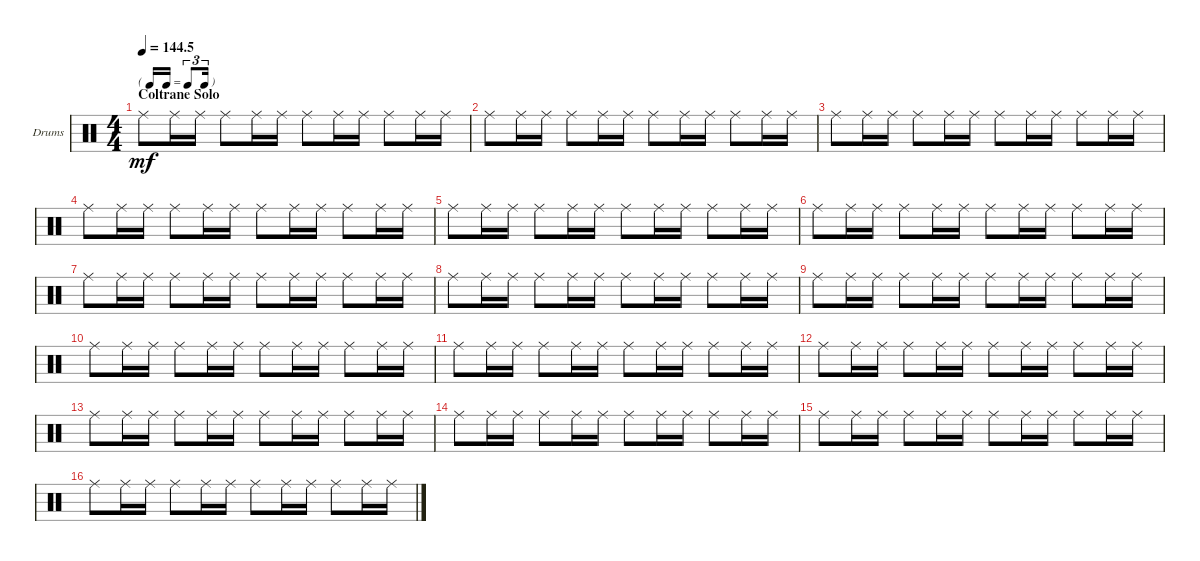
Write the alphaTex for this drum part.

\defaultSystemsLayout 4
\bracketExtendMode groupsimilarinstruments
\firstSystemTrackNameOrientation horizontal
\otherSystemsTrackNameOrientation horizontal
\track ("Drumkit" "Drums") {instrument percussion}
\staff {score}
\articulation defaults
\ts (4 4)
\tf triplet16th
\section ("" "Coltrane Solo")
\tempo
144.5
\accidentals auto
\clef neutral
\ottava regular
\simile none
\scale
0.5
\ks c "Ride (middle)".8{dy mf} "Ride (middle)".16 "Ride (middle)".16 "Ride (middle)".8 "Ride (middle)".16 "Ride (middle)".16 "Ride (middle)".8 "Ride (middle)".16 "Ride (middle)".16 "Ride (middle)".8 "Ride (middle)".16 "Ride (middle)".16
|
\scale
0.5 "Ride (middle)".8 "Ride (middle)".16 "Ride (middle)".16 "Ride (middle)".8 "Ride (middle)".16 "Ride (middle)".16 "Ride (middle)".8 "Ride (middle)".16 "Ride (middle)".16 "Ride (middle)".8 "Ride (middle)".16 "Ride (middle)".16 |
\scale
0.5 "Ride (middle)".8 "Ride (middle)".16 "Ride (middle)".16 "Ride (middle)".8 "Ride (middle)".16 "Ride (middle)".16 "Ride (middle)".8 "Ride (middle)".16 "Ride (middle)".16 "Ride (middle)".8 "Ride (middle)".16 "Ride (middle)".16 |
\scale
0.5 "Ride (middle)".8 "Ride (middle)".16 "Ride (middle)".16 "Ride (middle)".8 "Ride (middle)".16 "Ride (middle)".16 "Ride (middle)".8 "Ride (middle)".16 "Ride (middle)".16 "Ride (middle)".8 "Ride (middle)".16 "Ride (middle)".16 |
\scale
0.5 "Ride (middle)".8 "Ride (middle)".16 "Ride (middle)".16 "Ride (middle)".8 "Ride (middle)".16 "Ride (middle)".16 "Ride (middle)".8 "Ride (middle)".16 "Ride (middle)".16 "Ride (middle)".8 "Ride (middle)".16 "Ride (middle)".16 |
\scale
0.5 "Ride (middle)".8 "Ride (middle)".16 "Ride (middle)".16 "Ride (middle)".8 "Ride (middle)".16 "Ride (middle)".16 "Ride (middle)".8 "Ride (middle)".16 "Ride (middle)".16 "Ride (middle)".8 "Ride (middle)".16 "Ride (middle)".16 |
\scale
0.5 "Ride (middle)".8 "Ride (middle)".16 "Ride (middle)".16 "Ride (middle)".8 "Ride (middle)".16 "Ride (middle)".16 "Ride (middle)".8 "Ride (middle)".16 "Ride (middle)".16 "Ride (middle)".8 "Ride (middle)".16 "Ride (middle)".16 |
\scale
0.5 "Ride (middle)".8 "Ride (middle)".16 "Ride (middle)".16 "Ride (middle)".8 "Ride (middle)".16 "Ride (middle)".16 "Ride (middle)".8 "Ride (middle)".16 "Ride (middle)".16 "Ride (middle)".8 "Ride (middle)".16 "Ride (middle)".16 |
\scale
0.5 "Ride (middle)".8 "Ride (middle)".16 "Ride (middle)".16 "Ride (middle)".8 "Ride (middle)".16 "Ride (middle)".16 "Ride (middle)".8 "Ride (middle)".16 "Ride (middle)".16 "Ride (middle)".8 "Ride (middle)".16 "Ride (middle)".16 |
\scale
0.5 "Ride (middle)".8 "Ride (middle)".16 "Ride (middle)".16 "Ride (middle)".8 "Ride (middle)".16 "Ride (middle)".16 "Ride (middle)".8 "Ride (middle)".16 "Ride (middle)".16 "Ride (middle)".8 "Ride (middle)".16 "Ride (middle)".16 |
\scale
0.5 "Ride (middle)".8 "Ride (middle)".16 "Ride (middle)".16 "Ride (middle)".8 "Ride (middle)".16 "Ride (middle)".16 "Ride (middle)".8 "Ride (middle)".16 "Ride (middle)".16 "Ride (middle)".8 "Ride (middle)".16 "Ride (middle)".16 |
\scale
0.5 "Ride (middle)".8 "Ride (middle)".16 "Ride (middle)".16 "Ride (middle)".8 "Ride (middle)".16 "Ride (middle)".16 "Ride (middle)".8 "Ride (middle)".16 "Ride (middle)".16 "Ride (middle)".8 "Ride (middle)".16 "Ride (middle)".16 |
\scale
0.5 "Ride (middle)".8 "Ride (middle)".16 "Ride (middle)".16 "Ride (middle)".8 "Ride (middle)".16 "Ride (middle)".16 "Ride (middle)".8 "Ride (middle)".16 "Ride (middle)".16 "Ride (middle)".8 "Ride (middle)".16 "Ride (middle)".16 |
\scale
0.5 "Ride (middle)".8 "Ride (middle)".16 "Ride (middle)".16 "Ride (middle)".8 "Ride (middle)".16 "Ride (middle)".16 "Ride (middle)".8 "Ride (middle)".16 "Ride (middle)".16 "Ride (middle)".8 "Ride (middle)".16 "Ride (middle)".16 |
\scale
0.5 "Ride (middle)".8 "Ride (middle)".16 "Ride (middle)".16 "Ride (middle)".8 "Ride (middle)".16 "Ride (middle)".16 "Ride (middle)".8 "Ride (middle)".16 "Ride (middle)".16 "Ride (middle)".8 "Ride (middle)".16 "Ride (middle)".16 |
\scale
0.5 "Ride (middle)".8 "Ride (middle)".16 "Ride (middle)".16 "Ride (middle)".8 "Ride (middle)".16 "Ride (middle)".16 "Ride (middle)".8 "Ride (middle)".16 "Ride (middle)".16 "Ride (middle)".8 "Ride (middle)".16 "Ride (middle)".16
